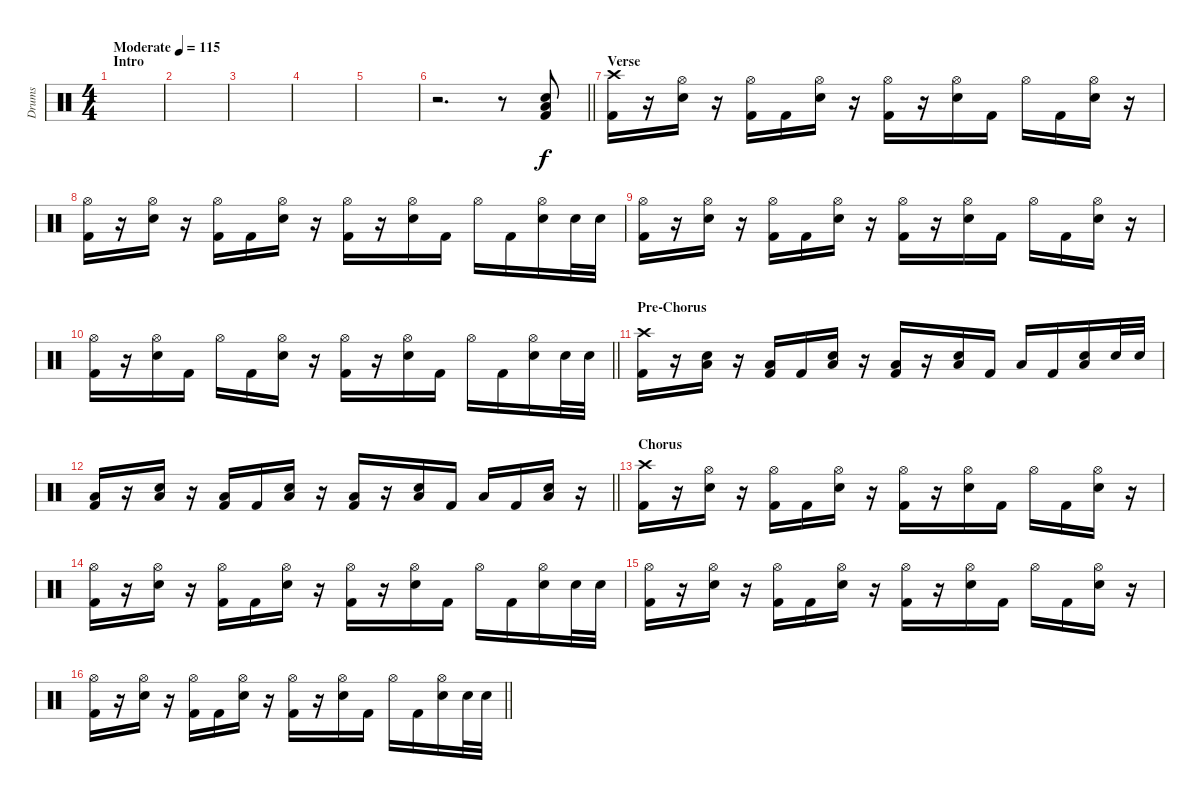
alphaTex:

\track ("Drums" "Drums") {instrument percussion}
\staff {score}
\articulation defaults
\ts (4 4)
\section ("" "Intro")
\tempo (115 "Moderate")
\clef neutral
\ks c
|
|
|
|
|
\barLineRight lightlight
r.2{d} r.8 ("Snare (hit) 2" "Low Floor Tom (hit)" "Kick (hit) 2").8 |
\section ("" "Verse")
("Crash high (hit)" "Kick (hit) 2").16 r.16 ("Hi-Hat (open)" "Snare (hit) 2").16 r.16 ("Hi-Hat (open)" "Kick (hit) 2").16 "Kick (hit) 2".16 ("Hi-Hat (open)" "Snare (hit) 2").16 r.16 ("Hi-Hat (open)" "Kick (hit) 2").16 r.16 ("Hi-Hat (open)" "Snare (hit) 2").16 "Kick (hit) 2".16 "Hi-Hat (open)".16 "Kick (hit) 2".16 ("Hi-Hat (open)" "Snare (hit) 2").16 r.16 |
("Hi-Hat (open)" "Kick (hit) 2").16 r.16 ("Hi-Hat (open)" "Snare (hit) 2").16 r.16 ("Hi-Hat (open)" "Kick (hit) 2").16 "Kick (hit) 2".16 ("Hi-Hat (open)" "Snare (hit) 2").16 r.16 ("Hi-Hat (open)" "Kick (hit) 2").16 r.16 ("Hi-Hat (open)" "Snare (hit) 2").16 "Kick (hit) 2".16 "Hi-Hat (open)".16 "Kick (hit) 2".16 ("Hi-Hat (open)" "Snare (hit) 2").16 "Snare (hit) 2".32 "Snare (hit) 2".32 |
("Hi-Hat (open)" "Kick (hit) 2").16 r.16 ("Hi-Hat (open)" "Snare (hit) 2").16 r.16 ("Hi-Hat (open)" "Kick (hit) 2").16 "Kick (hit) 2".16 ("Hi-Hat (open)" "Snare (hit) 2").16 r.16 ("Hi-Hat (open)" "Kick (hit) 2").16 r.16 ("Hi-Hat (open)" "Snare (hit) 2").16 "Kick (hit) 2".16 "Hi-Hat (open)".16 "Kick (hit) 2".16 ("Hi-Hat (open)" "Snare (hit) 2").16 r.16 |
\barLineRight lightlight
("Hi-Hat (open)" "Kick (hit) 2").16 r.16 ("Hi-Hat (open)" "Snare (hit) 2").16 "Kick (hit) 2".16 "Hi-Hat (open)".16 "Kick (hit) 2".16 ("Hi-Hat (open)" "Snare (hit) 2").16 r.16 ("Hi-Hat (open)" "Kick (hit) 2").16 r.16 ("Hi-Hat (open)" "Snare (hit) 2").16 "Kick (hit) 2".16 "Hi-Hat (open)".16 "Kick (hit) 2".16 ("Hi-Hat (open)" "Snare (hit) 2").16 "Snare (hit) 2".32 "Snare (hit) 2".32 |
\section ("" "Pre-Chorus")
("Crash high (hit)" "Kick (hit) 2").16 r.16 ("Low Floor Tom (hit)" "Snare (hit) 2").16 r.16 ("Low Floor Tom (hit)" "Kick (hit) 2").16 "Kick (hit) 2".16 ("Low Floor Tom (hit)" "Snare (hit) 2").16 r.16 ("Low Floor Tom (hit)" "Kick (hit) 2").16 r.16 ("Low Floor Tom (hit)" "Snare (hit) 2").16 "Kick (hit) 2".16 "Low Floor Tom (hit)".16 "Kick (hit) 2".16 ("Low Floor Tom (hit)" "Snare (hit) 2").16 "Snare (hit) 2".32 "Snare (hit) 2".32 |
\barLineRight lightlight
("Low Floor Tom (hit)" "Kick (hit) 2").16 r.16 ("Low Floor Tom (hit)" "Snare (hit) 2").16 r.16 ("Low Floor Tom (hit)" "Kick (hit) 2").16 "Kick (hit) 2".16 ("Low Floor Tom (hit)" "Snare (hit) 2").16 r.16 ("Low Floor Tom (hit)" "Kick (hit) 2").16 r.16 ("Low Floor Tom (hit)" "Snare (hit) 2").16 "Kick (hit) 2".16 "Low Floor Tom (hit)".16 "Kick (hit) 2".16 ("Low Floor Tom (hit)" "Snare (hit) 2").16 r.16 |
\section ("" "Chorus")
("Crash high (hit)" "Kick (hit) 2").16 r.16 ("Hi-Hat (open)" "Snare (hit) 2").16 r.16 ("Hi-Hat (open)" "Kick (hit) 2").16 "Kick (hit) 2".16 ("Hi-Hat (open)" "Snare (hit) 2").16 r.16 ("Hi-Hat (open)" "Kick (hit) 2").16 r.16 ("Hi-Hat (open)" "Snare (hit) 2").16 "Kick (hit) 2".16 "Hi-Hat (open)".16 "Kick (hit) 2".16 ("Hi-Hat (open)" "Snare (hit) 2").16 r.16 |
("Hi-Hat (open)" "Kick (hit) 2").16 r.16 ("Hi-Hat (open)" "Snare (hit) 2").16 r.16 ("Hi-Hat (open)" "Kick (hit) 2").16 "Kick (hit) 2".16 ("Hi-Hat (open)" "Snare (hit) 2").16 r.16 ("Hi-Hat (open)" "Kick (hit) 2").16 r.16 ("Hi-Hat (open)" "Snare (hit) 2").16 "Kick (hit) 2".16 "Hi-Hat (open)".16 "Kick (hit) 2".16 ("Hi-Hat (open)" "Snare (hit) 2").16 "Snare (hit) 2".32 "Snare (hit) 2".32 |
("Hi-Hat (open)" "Kick (hit) 2").16 r.16 ("Hi-Hat (open)" "Snare (hit) 2").16 r.16 ("Hi-Hat (open)" "Kick (hit) 2").16 "Kick (hit) 2".16 ("Hi-Hat (open)" "Snare (hit) 2").16 r.16 ("Hi-Hat (open)" "Kick (hit) 2").16 r.16 ("Hi-Hat (open)" "Snare (hit) 2").16 "Kick (hit) 2".16 "Hi-Hat (open)".16 "Kick (hit) 2".16 ("Hi-Hat (open)" "Snare (hit) 2").16 r.16 |
\barLineRight lightlight
("Hi-Hat (open)" "Kick (hit) 2").16 r.16 ("Hi-Hat (open)" "Snare (hit) 2").16 r.16 ("Hi-Hat (open)" "Kick (hit) 2").16 "Kick (hit) 2".16 ("Hi-Hat (open)" "Snare (hit) 2").16 r.16 ("Hi-Hat (open)" "Kick (hit) 2").16 r.16 ("Hi-Hat (open)" "Snare (hit) 2").16 "Kick (hit) 2".16 "Hi-Hat (open)".16 "Kick (hit) 2".16 ("Hi-Hat (open)" "Snare (hit) 2").16 "Snare (hit) 2".32 "Snare (hit) 2".32
